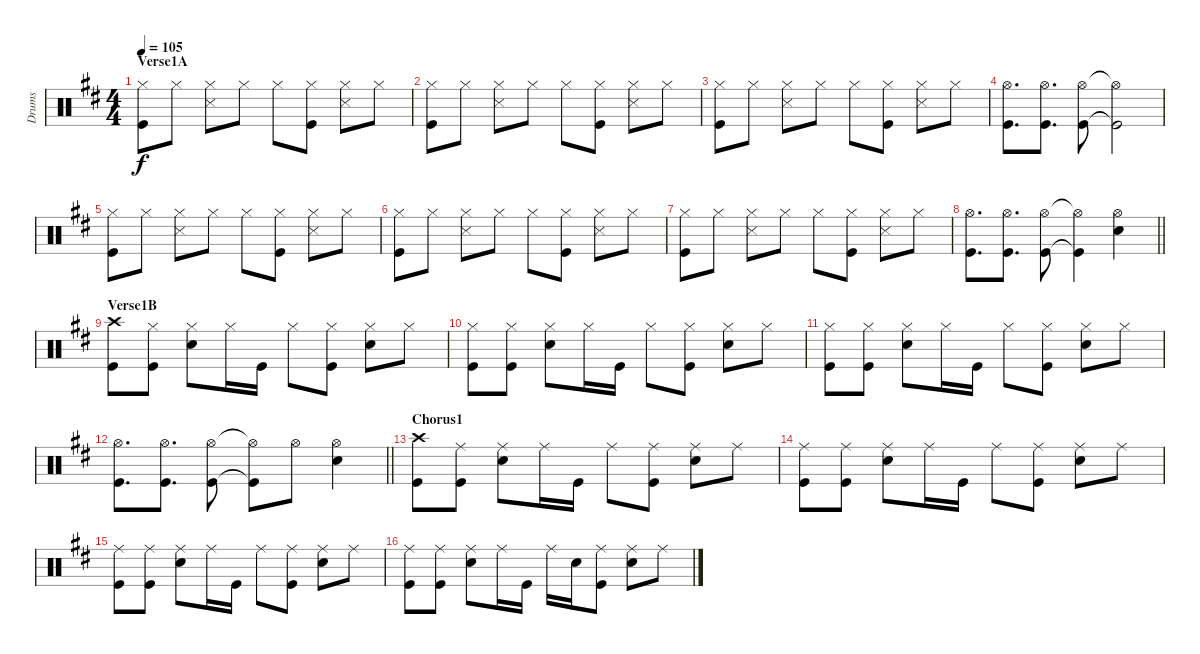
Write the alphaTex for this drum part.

\track ("Drums" "Drums") {instrument percussion}
\staff {score}
\articulation defaults
\ts (4 4)
\section ("" "Verse1A")
\tempo 105
\clef neutral
\ks d
("Hi-Hat (closed)" "Kick (hit)").8{dy f} "Hi-Hat (closed)".8 ("Hi-Hat (closed)" "Snare (side stick) 3").8 "Hi-Hat (closed)".8 "Hi-Hat (closed)".8 ("Hi-Hat (closed)" "Kick (hit)").8 ("Hi-Hat (closed)" "Snare (side stick) 3").8 "Hi-Hat (closed)".8 |
("Hi-Hat (closed)" "Kick (hit)").8 "Hi-Hat (closed)".8 ("Hi-Hat (closed)" "Snare (side stick) 3").8 "Hi-Hat (closed)".8 "Hi-Hat (closed)".8 ("Hi-Hat (closed)" "Kick (hit)").8 ("Hi-Hat (closed)" "Snare (side stick) 3").8 "Hi-Hat (closed)".8 |
("Hi-Hat (closed)" "Kick (hit)").8 "Hi-Hat (closed)".8 ("Hi-Hat (closed)" "Snare (side stick) 3").8 "Hi-Hat (closed)".8 "Hi-Hat (closed)".8 ("Hi-Hat (closed)" "Kick (hit)").8 ("Hi-Hat (closed)" "Snare (side stick) 3").8 "Hi-Hat (closed)".8 |
("Hi-Hat (open)" "Kick (hit)").8{d} ("Kick (hit)" "Hi-Hat (open)").8{d} ("Kick (hit)" "Hi-Hat (open)").8 ("Kick (hit)"{t} "Hi-Hat (open)"{t}).2 |
("Hi-Hat (closed)" "Kick (hit)").8 "Hi-Hat (closed)".8 ("Hi-Hat (closed)" "Snare (side stick) 3").8 "Hi-Hat (closed)".8 "Hi-Hat (closed)".8 ("Hi-Hat (closed)" "Kick (hit)").8 ("Hi-Hat (closed)" "Snare (side stick) 3").8 "Hi-Hat (closed)".8 |
("Hi-Hat (closed)" "Kick (hit)").8 "Hi-Hat (closed)".8 ("Hi-Hat (closed)" "Snare (side stick) 3").8 "Hi-Hat (closed)".8 "Hi-Hat (closed)".8 ("Hi-Hat (closed)" "Kick (hit)").8 ("Hi-Hat (closed)" "Snare (side stick) 3").8 "Hi-Hat (closed)".8 |
("Hi-Hat (closed)" "Kick (hit)").8 "Hi-Hat (closed)".8 ("Hi-Hat (closed)" "Snare (side stick) 3").8 "Hi-Hat (closed)".8 "Hi-Hat (closed)".8 ("Hi-Hat (closed)" "Kick (hit)").8 ("Hi-Hat (closed)" "Snare (side stick) 3").8 "Hi-Hat (closed)".8 |
\barLineRight lightlight
("Hi-Hat (open)" "Kick (hit)").8{d} ("Hi-Hat (open)" "Kick (hit)").8{d} ("Hi-Hat (open)" "Kick (hit)").8 ("Hi-Hat (open)"{t} "Kick (hit)"{t}).4 ("Snare (hit) 2" "Hi-Hat (open)").4 |
\section ("" "Verse1B")
("Crash high (hit)" "Kick (hit)").8 ("Hi-Hat (closed)" "Kick (hit)").8 ("Hi-Hat (closed)" "Snare (hit) 2").8 "Hi-Hat (closed)".16 "Kick (hit)".16 "Hi-Hat (closed)".8 ("Hi-Hat (closed)" "Kick (hit)").8 ("Hi-Hat (closed)" "Snare (hit) 2").8 "Hi-Hat (closed)".8 |
("Hi-Hat (closed)" "Kick (hit)").8 ("Hi-Hat (closed)" "Kick (hit)").8 ("Hi-Hat (closed)" "Snare (hit) 2").8 "Hi-Hat (closed)".16 "Kick (hit)".16 "Hi-Hat (closed)".8 ("Hi-Hat (closed)" "Kick (hit)").8 ("Hi-Hat (closed)" "Snare (hit) 2").8 "Hi-Hat (closed)".8 |
("Hi-Hat (closed)" "Kick (hit)").8 ("Hi-Hat (closed)" "Kick (hit)").8 ("Hi-Hat (closed)" "Snare (hit) 2").8 "Hi-Hat (closed)".16 "Kick (hit)".16 "Hi-Hat (closed)".8 ("Hi-Hat (closed)" "Kick (hit)").8 ("Hi-Hat (closed)" "Snare (hit) 2").8 "Hi-Hat (closed)".8 |
\barLineRight lightlight
("Hi-Hat (open)" "Kick (hit)").8{d} ("Kick (hit)" "Hi-Hat (open)").8{d} ("Kick (hit)" "Hi-Hat (open)").8 ("Kick (hit)"{t} "Hi-Hat (open)"{t}).8 "Hi-Hat (open)".8 ("Hi-Hat (open)" "Snare (hit) 2").4 |
\section ("" "Chorus1")
("Crash high (hit)" "Kick (hit)").8 ("Ride (middle)" "Kick (hit)").8 ("Ride (middle)" "Snare (hit) 2").8 "Ride (middle)".16 "Kick (hit)".16 "Ride (middle)".8 ("Ride (middle)" "Kick (hit)").8 ("Ride (middle)" "Snare (hit) 2").8 "Ride (middle)".8 |
("Ride (middle)" "Kick (hit)").8 ("Ride (middle)" "Kick (hit)").8 ("Ride (middle)" "Snare (hit) 2").8 "Ride (middle)".16 "Kick (hit)".16 "Ride (middle)".8 ("Ride (middle)" "Kick (hit)").8 ("Ride (middle)" "Snare (hit) 2").8 "Ride (middle)".8 |
("Ride (middle)" "Kick (hit)").8 ("Ride (middle)" "Kick (hit)").8 ("Ride (middle)" "Snare (hit) 2").8 "Ride (middle)".16 "Kick (hit)".16 "Ride (middle)".8 ("Ride (middle)" "Kick (hit)").8 ("Ride (middle)" "Snare (hit) 2").8 "Ride (middle)".8 |
("Ride (middle)" "Kick (hit)").8 ("Ride (middle)" "Kick (hit)").8 ("Ride (middle)" "Snare (hit) 2").8 "Ride (middle)".16 "Kick (hit)".16 "Ride (middle)".16 "Snare (hit) 2".16 ("Ride (middle)" "Kick (hit)").8 ("Ride (middle)" "Snare (hit) 2").8 "Ride (middle)".8
